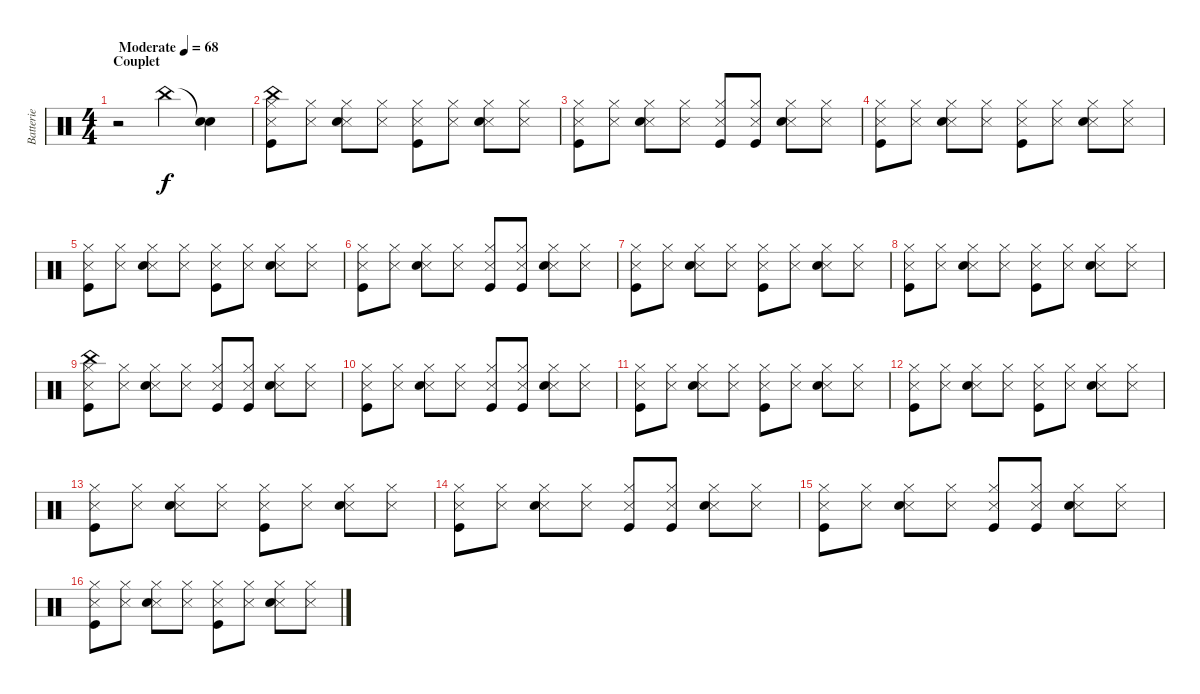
\track ("Batterie" "Batterie") {instrument percussion}
\staff {score}
\articulation defaults
\ts (4 4)
\section ("" "Couplet")
\tempo (68 "Moderate")
\clef neutral
\ks c
r.2{dy f} "China (hit)".4 ("Snare (hit)"{t} "Snare (hit) 2").4 |
("Snare (side stick) 3" "Hi-Hat (closed)" "China (hit)" "Kick (hit)").8 ("Snare (side stick) 3" "Hi-Hat (closed)").8 ("Snare (side stick) 3" "Hi-Hat (closed)" "Snare (hit) 2").8 ("Snare (side stick) 3" "Hi-Hat (closed)").8 ("Snare (side stick) 3" "Hi-Hat (closed)" "Kick (hit)").8 ("Snare (side stick) 3" "Hi-Hat (closed)").8 ("Snare (side stick) 3" "Hi-Hat (closed)" "Snare (hit) 2").8 ("Snare (side stick) 3" "Hi-Hat (closed)").8 |
("Snare (side stick) 3" "Hi-Hat (closed)" "Kick (hit)").8 ("Snare (side stick) 3" "Hi-Hat (closed)").8 ("Snare (side stick) 3" "Hi-Hat (closed)" "Snare (hit) 2").8 ("Snare (side stick) 3" "Hi-Hat (closed)").8 ("Snare (side stick) 3" "Hi-Hat (closed)" "Kick (hit)").8 ("Snare (side stick) 3" "Hi-Hat (closed)" "Kick (hit)").8 ("Snare (side stick) 3" "Hi-Hat (closed)" "Snare (hit) 2").8 ("Snare (side stick) 3" "Hi-Hat (closed)").8 |
("Snare (side stick) 3" "Hi-Hat (closed)" "Kick (hit)").8 ("Snare (side stick) 3" "Hi-Hat (closed)").8 ("Snare (side stick) 3" "Hi-Hat (closed)" "Snare (hit) 2").8 ("Snare (side stick) 3" "Hi-Hat (closed)").8 ("Snare (side stick) 3" "Hi-Hat (closed)" "Kick (hit)").8 ("Snare (side stick) 3" "Hi-Hat (closed)").8 ("Snare (side stick) 3" "Hi-Hat (closed)" "Snare (hit) 2").8 ("Snare (side stick) 3" "Hi-Hat (closed)").8 |
("Snare (side stick) 3" "Hi-Hat (closed)" "Kick (hit)").8 ("Snare (side stick) 3" "Hi-Hat (closed)").8 ("Snare (side stick) 3" "Hi-Hat (closed)" "Snare (hit) 2").8 ("Snare (side stick) 3" "Hi-Hat (closed)").8 ("Snare (side stick) 3" "Hi-Hat (closed)" "Kick (hit)").8 ("Snare (side stick) 3" "Hi-Hat (closed)").8 ("Snare (side stick) 3" "Hi-Hat (closed)" "Snare (hit) 2").8 ("Snare (side stick) 3" "Hi-Hat (closed)").8 |
("Snare (side stick) 3" "Hi-Hat (closed)" "Kick (hit)").8 ("Snare (side stick) 3" "Hi-Hat (closed)").8 ("Snare (side stick) 3" "Hi-Hat (closed)" "Snare (hit) 2").8 ("Snare (side stick) 3" "Hi-Hat (closed)").8 ("Snare (side stick) 3" "Hi-Hat (closed)" "Kick (hit)").8 ("Snare (side stick) 3" "Hi-Hat (closed)" "Kick (hit)").8 ("Snare (side stick) 3" "Hi-Hat (closed)" "Snare (hit) 2").8 ("Snare (side stick) 3" "Hi-Hat (closed)").8 |
("Snare (side stick) 3" "Hi-Hat (closed)" "Kick (hit)").8 ("Snare (side stick) 3" "Hi-Hat (closed)").8 ("Snare (side stick) 3" "Hi-Hat (closed)" "Snare (hit) 2").8 ("Snare (side stick) 3" "Hi-Hat (closed)").8 ("Snare (side stick) 3" "Hi-Hat (closed)" "Kick (hit)").8 ("Snare (side stick) 3" "Hi-Hat (closed)").8 ("Snare (side stick) 3" "Hi-Hat (closed)" "Snare (hit) 2").8 ("Snare (side stick) 3" "Hi-Hat (closed)").8 |
("Snare (side stick) 3" "Hi-Hat (closed)" "Kick (hit)").8 ("Snare (side stick) 3" "Hi-Hat (closed)").8 ("Snare (side stick) 3" "Hi-Hat (closed)" "Snare (hit) 2").8 ("Snare (side stick) 3" "Hi-Hat (closed)").8 ("Snare (side stick) 3" "Hi-Hat (closed)" "Kick (hit)").8 ("Snare (side stick) 3" "Hi-Hat (closed)").8 ("Snare (side stick) 3" "Hi-Hat (closed)" "Snare (hit) 2").8 ("Snare (side stick) 3" "Hi-Hat (closed)").8 |
("Snare (side stick) 3" "Hi-Hat (closed)" "China (hit)" "Kick (hit)").8 ("Snare (side stick) 3" "Hi-Hat (closed)").8 ("Snare (side stick) 3" "Hi-Hat (closed)" "Snare (hit) 2").8 ("Snare (side stick) 3" "Hi-Hat (closed)").8 ("Snare (side stick) 3" "Hi-Hat (closed)" "Kick (hit)").8 ("Snare (side stick) 3" "Hi-Hat (closed)" "Kick (hit)").8 ("Snare (side stick) 3" "Hi-Hat (closed)" "Snare (hit) 2").8 ("Snare (side stick) 3" "Hi-Hat (closed)").8 |
("Snare (side stick) 3" "Hi-Hat (closed)" "Kick (hit)").8 ("Snare (side stick) 3" "Hi-Hat (closed)").8 ("Snare (side stick) 3" "Hi-Hat (closed)" "Snare (hit) 2").8 ("Snare (side stick) 3" "Hi-Hat (closed)").8 ("Snare (side stick) 3" "Hi-Hat (closed)" "Kick (hit)").8 ("Snare (side stick) 3" "Hi-Hat (closed)" "Kick (hit)").8 ("Snare (side stick) 3" "Hi-Hat (closed)" "Snare (hit) 2").8 ("Snare (side stick) 3" "Hi-Hat (closed)").8 |
("Snare (side stick) 3" "Hi-Hat (closed)" "Kick (hit)").8 ("Snare (side stick) 3" "Hi-Hat (closed)").8 ("Snare (side stick) 3" "Hi-Hat (closed)" "Snare (hit) 2").8 ("Snare (side stick) 3" "Hi-Hat (closed)").8 ("Snare (side stick) 3" "Hi-Hat (closed)" "Kick (hit)").8 ("Snare (side stick) 3" "Hi-Hat (closed)").8 ("Snare (side stick) 3" "Hi-Hat (closed)" "Snare (hit) 2").8 ("Snare (side stick) 3" "Hi-Hat (closed)").8 |
("Snare (side stick) 3" "Hi-Hat (closed)" "Kick (hit)").8 ("Snare (side stick) 3" "Hi-Hat (closed)").8 ("Snare (side stick) 3" "Hi-Hat (closed)" "Snare (hit) 2").8 ("Snare (side stick) 3" "Hi-Hat (closed)").8 ("Snare (side stick) 3" "Hi-Hat (closed)" "Kick (hit)").8 ("Snare (side stick) 3" "Hi-Hat (closed)").8 ("Snare (side stick) 3" "Hi-Hat (closed)" "Snare (hit) 2").8 ("Snare (side stick) 3" "Hi-Hat (closed)").8 |
("Snare (side stick) 3" "Hi-Hat (closed)" "Kick (hit)").8 ("Snare (side stick) 3" "Hi-Hat (closed)").8 ("Snare (side stick) 3" "Hi-Hat (closed)" "Snare (hit) 2").8 ("Snare (side stick) 3" "Hi-Hat (closed)").8 ("Snare (side stick) 3" "Hi-Hat (closed)" "Kick (hit)").8 ("Snare (side stick) 3" "Hi-Hat (closed)").8 ("Snare (side stick) 3" "Hi-Hat (closed)" "Snare (hit) 2").8 ("Snare (side stick) 3" "Hi-Hat (closed)").8 |
("Snare (side stick) 3" "Hi-Hat (closed)" "Kick (hit)").8 ("Snare (side stick) 3" "Hi-Hat (closed)").8 ("Snare (side stick) 3" "Hi-Hat (closed)" "Snare (hit) 2").8 ("Snare (side stick) 3" "Hi-Hat (closed)").8 ("Snare (side stick) 3" "Hi-Hat (closed)" "Kick (hit)").8 ("Snare (side stick) 3" "Hi-Hat (closed)" "Kick (hit)").8 ("Snare (side stick) 3" "Hi-Hat (closed)" "Snare (hit) 2").8 ("Snare (side stick) 3" "Hi-Hat (closed)").8 |
("Snare (side stick) 3" "Hi-Hat (closed)" "Kick (hit)").8 ("Snare (side stick) 3" "Hi-Hat (closed)").8 ("Snare (side stick) 3" "Hi-Hat (closed)" "Snare (hit) 2").8 ("Snare (side stick) 3" "Hi-Hat (closed)").8 ("Snare (side stick) 3" "Hi-Hat (closed)" "Kick (hit)").8 ("Snare (side stick) 3" "Hi-Hat (closed)" "Kick (hit)").8 ("Snare (side stick) 3" "Hi-Hat (closed)" "Snare (hit) 2").8 ("Snare (side stick) 3" "Hi-Hat (closed)").8 |
("Snare (side stick) 3" "Hi-Hat (closed)" "Kick (hit)").8 ("Snare (side stick) 3" "Hi-Hat (closed)").8 ("Snare (side stick) 3" "Hi-Hat (closed)" "Snare (hit) 2").8 ("Snare (side stick) 3" "Hi-Hat (closed)").8 ("Snare (side stick) 3" "Hi-Hat (closed)" "Kick (hit)").8 ("Snare (side stick) 3" "Hi-Hat (closed)").8 ("Snare (side stick) 3" "Hi-Hat (closed)" "Snare (hit) 2").8 ("Snare (side stick) 3" "Hi-Hat (closed)").8
